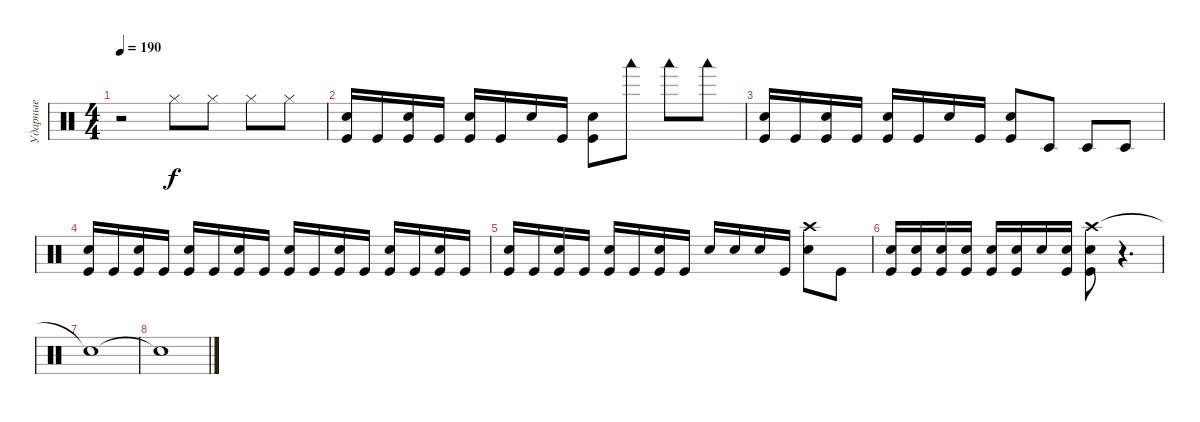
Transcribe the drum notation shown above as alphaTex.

\track ("Ударные" "Ударные") {instrument percussion}
\staff {score}
\articulation defaults
\ts (4 4)
\tempo 190
\clef neutral
\ks c
r.2{dy f} "Hi-Hat (closed)".8 "Hi-Hat (closed)".8 "Hi-Hat (closed)".8 "Hi-Hat (closed)".8 |
("Electric Snare (hit)" "Kick (hit)").16 "Kick (hit)".16 ("Electric Snare (hit)" "Kick (hit)").16 "Kick (hit)".16 ("Electric Snare (hit)" "Kick (hit)").16 "Kick (hit)".16 "Electric Snare (hit)".16 "Kick (hit)".16 ("Electric Snare (hit)" "Kick (hit)").8 "Woodblock low (hit)".8 "Woodblock low (hit)".8 "Woodblock low (hit)".8 |
("Electric Snare (hit)" "Kick (hit)").16 "Kick (hit)".16 ("Electric Snare (hit)" "Kick (hit)").16 "Kick (hit)".16 ("Electric Snare (hit)" "Kick (hit)").16 "Kick (hit)".16 "Electric Snare (hit)".16 "Kick (hit)".16 ("Electric Snare (hit)" "Kick (hit)").8 "Timbale low (hit)".8 "Timbale low (hit)".8 "Timbale low (hit)".8 |
("Electric Snare (hit)" "Kick (hit)").16 "Kick (hit)".16 ("Electric Snare (hit)" "Kick (hit)").16 "Kick (hit)".16 ("Electric Snare (hit)" "Kick (hit)").16 "Kick (hit)".16 ("Electric Snare (hit)" "Kick (hit)").16 "Kick (hit)".16 ("Electric Snare (hit)" "Kick (hit)").16 "Kick (hit)".16 ("Electric Snare (hit)" "Kick (hit)").16 "Kick (hit)".16 ("Electric Snare (hit)" "Kick (hit)").16 "Kick (hit)".16 ("Electric Snare (hit)" "Kick (hit)").16 "Kick (hit)".16 |
("Electric Snare (hit)" "Kick (hit)").16 "Kick (hit)".16 ("Electric Snare (hit)" "Kick (hit)").16 "Kick (hit)".16 ("Electric Snare (hit)" "Kick (hit)").16 "Kick (hit)".16 ("Electric Snare (hit)" "Kick (hit)").16 "Kick (hit)".16 "Electric Snare (hit)".16 "Electric Snare (hit)".16 "Electric Snare (hit)".16 "Kick (hit)".16 ("Crash high (hit)" "Electric Snare (hit)").8 "Kick (hit)".8 |
("Electric Snare (hit)" "Kick (hit)").16 ("Electric Snare (hit)" "Kick (hit)").16 ("Electric Snare (hit)" "Kick (hit)").16 ("Electric Snare (hit)" "Kick (hit)").16 ("Electric Snare (hit)" "Kick (hit)").16 ("Electric Snare (hit)" "Kick (hit)").16 "Electric Snare (hit)".16 ("Electric Snare (hit)" "Kick (hit)").16 ("Crash high (hit)" "Electric Snare (hit)" "Kick (hit)").8 r.4{d} |
"Snare (hit)"{t}.1 |
"Snare (hit)"{t}.1
